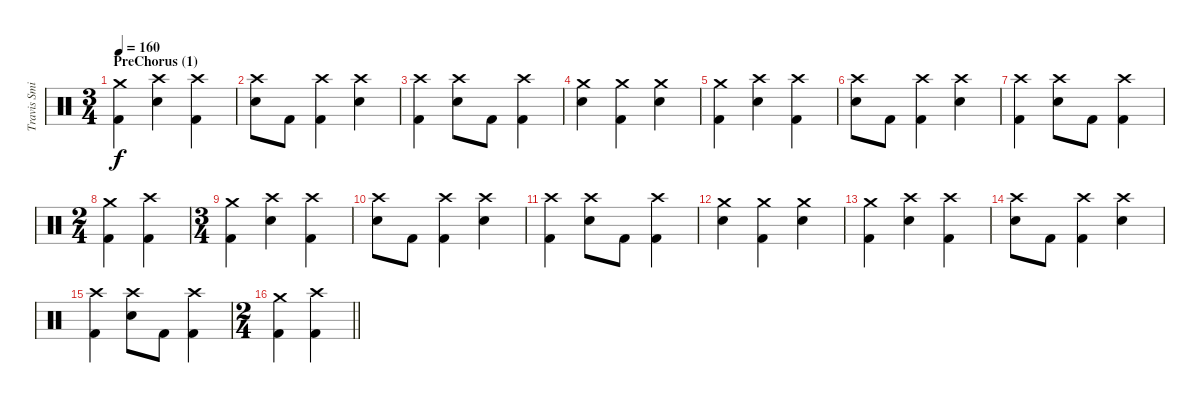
\track ("Travis Smith" "Travis Smi") {instrument percussion}
\staff {score}
\articulation defaults
\ts (3 4)
\section ("" "PreChorus (1)")
\tempo 160
\clef neutral
\ks c
("Crash medium (hit)" "Kick (hit) 2").4{dy f} ("Crash high (hit)" "Electric Snare (hit)").4 ("Crash high (hit)" "Kick (hit) 2").4 |
("Crash high (hit)" "Electric Snare (hit)").8 "Kick (hit) 2".8 ("Crash high (hit)" "Kick (hit) 2").4 ("Crash high (hit)" "Electric Snare (hit)").4 |
("Crash high (hit)" "Kick (hit) 2").4 ("Crash high (hit)" "Electric Snare (hit)").8 "Kick (hit) 2".8 ("Crash high (hit)" "Kick (hit) 2").4 |
("Crash medium (hit)" "Electric Snare (hit)").4 ("Crash medium (hit)" "Kick (hit) 2").4 ("Crash medium (hit)" "Electric Snare (hit)").4 |
("Crash medium (hit)" "Kick (hit) 2").4 ("Crash high (hit)" "Electric Snare (hit)").4 ("Crash high (hit)" "Kick (hit) 2").4 |
("Crash high (hit)" "Electric Snare (hit)").8 "Kick (hit) 2".8 ("Crash high (hit)" "Kick (hit) 2").4 ("Crash high (hit)" "Electric Snare (hit)").4 |
("Crash high (hit)" "Kick (hit) 2").4 ("Crash high (hit)" "Electric Snare (hit)").8 "Kick (hit) 2".8 ("Crash high (hit)" "Kick (hit) 2").4 |
\ts (2 4)
("Crash medium (hit)" "Kick (hit) 2").4 ("Crash high (hit)" "Kick (hit) 2").4 |
\ts (3 4)
("Crash medium (hit)" "Kick (hit) 2").4 ("Crash high (hit)" "Electric Snare (hit)").4 ("Crash high (hit)" "Kick (hit) 2").4 |
("Crash high (hit)" "Electric Snare (hit)").8 "Kick (hit) 2".8 ("Crash high (hit)" "Kick (hit) 2").4 ("Crash high (hit)" "Electric Snare (hit)").4 |
("Crash high (hit)" "Kick (hit) 2").4 ("Crash high (hit)" "Electric Snare (hit)").8 "Kick (hit) 2".8 ("Crash high (hit)" "Kick (hit) 2").4 |
("Crash medium (hit)" "Electric Snare (hit)").4 ("Crash medium (hit)" "Kick (hit) 2").4 ("Crash medium (hit)" "Electric Snare (hit)").4 |
("Crash medium (hit)" "Kick (hit) 2").4 ("Crash high (hit)" "Electric Snare (hit)").4 ("Crash high (hit)" "Kick (hit) 2").4 |
("Crash high (hit)" "Electric Snare (hit)").8 "Kick (hit) 2".8 ("Crash high (hit)" "Kick (hit) 2").4 ("Crash high (hit)" "Electric Snare (hit)").4 |
("Crash high (hit)" "Kick (hit) 2").4 ("Crash high (hit)" "Electric Snare (hit)").8 "Kick (hit) 2".8 ("Crash high (hit)" "Kick (hit) 2").4 |
\ts (2 4)
\barLineRight lightlight
("Crash medium (hit)" "Kick (hit) 2").4 ("Crash high (hit)" "Kick (hit) 2").4
